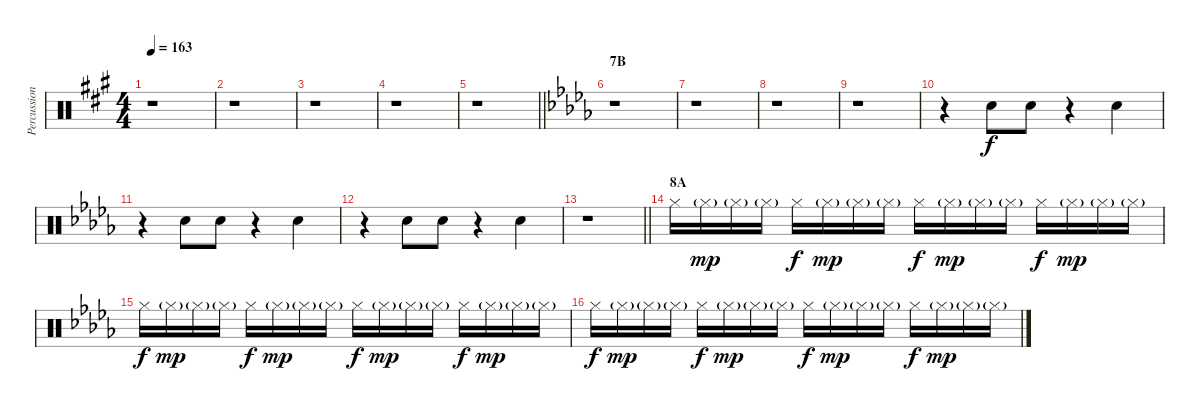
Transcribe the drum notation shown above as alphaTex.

\track ("Percussions" "Percussion") {instrument percussion}
\staff {score}
\articulation defaults
\ts (4 4)
\tempo 163
\clef neutral
\ks a
r.1{dy f} |
r.1 |
r.1 |
r.1 |
\barLineRight lightlight
r.1 |
\section ("" "7B")
\ks db
r.1 |
r.1 |
r.1 |
r.1 |
r.4 "Hand Clap (hit)".8 "Hand Clap (hit)".8 r.4 "Hand Clap (hit)".4 |
r.4 "Hand Clap (hit)".8 "Hand Clap (hit)".8 r.4 "Hand Clap (hit)".4 |
r.4 "Hand Clap (hit)".8 "Hand Clap (hit)".8 r.4 "Hand Clap (hit)".4 |
\barLineRight lightlight
r.1 |
\section ("" "8A")
"Hi-Hat (closed)".16 "Hi-Hat (closed)"{g}.16{dy mp} "Hi-Hat (closed)"{g}.16 "Hi-Hat (closed)"{g}.16 "Hi-Hat (closed)".16{dy f} "Hi-Hat (closed)"{g}.16{dy mp} "Hi-Hat (closed)"{g}.16 "Hi-Hat (closed)"{g}.16 "Hi-Hat (closed)".16{dy f} "Hi-Hat (closed)"{g}.16{dy mp} "Hi-Hat (closed)"{g}.16 "Hi-Hat (closed)"{g}.16 "Hi-Hat (closed)".16{dy f} "Hi-Hat (closed)"{g}.16{dy mp} "Hi-Hat (closed)"{g}.16 "Hi-Hat (closed)"{g}.16 |
"Hi-Hat (closed)".16{dy f} "Hi-Hat (closed)"{g}.16{dy mp} "Hi-Hat (closed)"{g}.16 "Hi-Hat (closed)"{g}.16 "Hi-Hat (closed)".16{dy f} "Hi-Hat (closed)"{g}.16{dy mp} "Hi-Hat (closed)"{g}.16 "Hi-Hat (closed)"{g}.16 "Hi-Hat (closed)".16{dy f} "Hi-Hat (closed)"{g}.16{dy mp} "Hi-Hat (closed)"{g}.16 "Hi-Hat (closed)"{g}.16 "Hi-Hat (closed)".16{dy f} "Hi-Hat (closed)"{g}.16{dy mp} "Hi-Hat (closed)"{g}.16 "Hi-Hat (closed)"{g}.16 |
"Hi-Hat (closed)".16{dy f} "Hi-Hat (closed)"{g}.16{dy mp} "Hi-Hat (closed)"{g}.16 "Hi-Hat (closed)"{g}.16 "Hi-Hat (closed)".16{dy f} "Hi-Hat (closed)"{g}.16{dy mp} "Hi-Hat (closed)"{g}.16 "Hi-Hat (closed)"{g}.16 "Hi-Hat (closed)".16{dy f} "Hi-Hat (closed)"{g}.16{dy mp} "Hi-Hat (closed)"{g}.16 "Hi-Hat (closed)"{g}.16 "Hi-Hat (closed)".16{dy f} "Hi-Hat (closed)"{g}.16{dy mp} "Hi-Hat (closed)"{g}.16 "Hi-Hat (closed)"{g}.16
